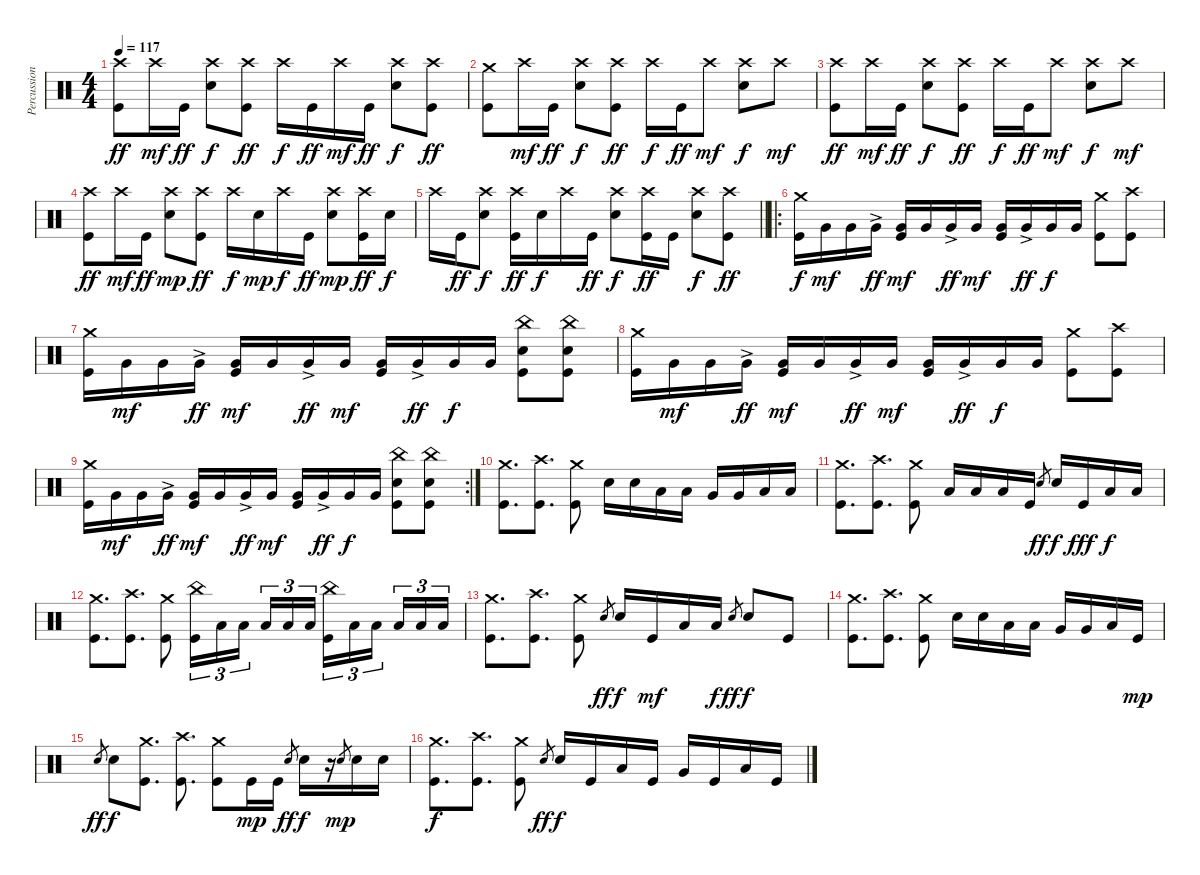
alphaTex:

\track ("Percussion" "Percussion") {instrument percussion}
\staff {score}
\articulation defaults
\ts (4 4)
\tempo 117
\clef neutral
\ks c
("Crash high (hit)" "Kick (hit)").8{dy ff} "Crash high (hit)".16{dy mf} "Kick (hit)".16{dy ff} ("Crash high (hit)" "Snare (hit) 2").8{dy f} ("Crash high (hit)" "Kick (hit)").8{dy ff} "Crash high (hit)".16{dy f} "Kick (hit)".16{dy ff} "Crash high (hit)".16{dy mf} "Kick (hit)".16{dy ff} ("Crash high (hit)" "Snare (hit) 2").8{dy f} ("Crash high (hit)" "Kick (hit)").8{dy ff} |
("Crash medium (hit)" "Kick (hit)").8 "Crash high (hit)".16{dy mf} "Kick (hit)".16{dy ff} ("Crash high (hit)" "Snare (hit) 2").8{dy f} ("Crash high (hit)" "Kick (hit)").8{dy ff} "Crash high (hit)".16{dy f} "Kick (hit)".16{dy ff} "Crash high (hit)".8{dy mf} ("Crash high (hit)" "Snare (hit) 2").8{dy f} "Crash high (hit)".8{dy mf} |
("Crash high (hit)" "Kick (hit)").8{dy ff} "Crash high (hit)".16{dy mf} "Kick (hit)".16{dy ff} ("Crash high (hit)" "Snare (hit) 2").8{dy f} ("Crash high (hit)" "Kick (hit)").8{dy ff} "Crash high (hit)".16{dy f} "Kick (hit)".16{dy ff} "Crash high (hit)".8{dy mf} ("Crash high (hit)" "Snare (hit) 2").8{dy f} "Crash high (hit)".8{dy mf} |
("Crash high (hit)" "Kick (hit)").8{dy ff} "Crash high (hit)".16{dy mf} "Kick (hit)".16{dy ff} ("Crash high (hit)" "Snare (hit) 2").8{dy mp} ("Crash high (hit)" "Kick (hit)").8{dy ff} "Crash high (hit)".16{dy f} "Snare (hit) 2".16{dy mp} "Crash high (hit)".16{dy f} "Kick (hit)".16{dy ff} ("Crash high (hit)" "Snare (hit) 2").8{dy mp} ("Crash high (hit)" "Kick (hit)").16{dy ff} "Snare (hit) 2".16{dy f} |
\barLineRight lightlight "Crash high (hit)".16 "Kick (hit)".16{dy ff}
("Crash high (hit)" "Snare (hit) 2").8{dy f} ("Crash high (hit)" "Kick (hit)").16{dy ff} "Snare (hit) 2".16{dy f} "Crash high (hit)".16 "Kick (hit)".16{dy ff} ("Crash high (hit)" "Snare (hit) 2").8{dy f} ("Crash high (hit)" "Kick (hit)").16{dy ff} "Kick (hit)".16 ("Crash high (hit)" "Snare (hit) 2").8{dy f} ("Crash high (hit)" "Kick (hit)").8{dy ff} |
\ro
("Crash medium (hit)" "Kick (hit)").16{dy f} "Very Low Tom (hit)".16{dy mf} "Very Low Tom (hit)".16 "Very Low Tom (hit)"{ac}.16{dy ff} ("Very Low Tom (hit)" "Kick (hit)").16{dy mf} "Very Low Tom (hit)".16 "Very Low Tom (hit)"{ac}.16{dy ff} "Very Low Tom (hit)".16{dy mf} ("Very Low Tom (hit)" "Kick (hit)").16 "Very Low Tom (hit)"{ac}.16{dy ff} "Very Low Tom (hit)".16{dy f} "Very Low Tom (hit)".16 ("Crash medium (hit)" "Kick (hit)").8 ("Crash high (hit)" "Kick (hit)").8 |
("Crash medium (hit)" "Kick (hit)").16 "Very Low Tom (hit)".16{dy mf} "Very Low Tom (hit)".16 "Very Low Tom (hit)"{ac}.16{dy ff} ("Very Low Tom (hit)" "Kick (hit)").16{dy mf} "Very Low Tom (hit)".16 "Very Low Tom (hit)"{ac}.16{dy ff} "Very Low Tom (hit)".16{dy mf} ("Very Low Tom (hit)" "Kick (hit)").16 "Very Low Tom (hit)"{ac}.16{dy ff} "Very Low Tom (hit)".16{dy f} "Very Low Tom (hit)".16 ("China (hit)" "Snare (hit) 2" "Kick (hit)").8 ("China (hit)" "Snare (hit) 2" "Kick (hit)").8 |
("Crash medium (hit)" "Kick (hit)").16 "Very Low Tom (hit)".16{dy mf} "Very Low Tom (hit)".16 "Very Low Tom (hit)"{ac}.16{dy ff} ("Very Low Tom (hit)" "Kick (hit)").16{dy mf} "Very Low Tom (hit)".16 "Very Low Tom (hit)"{ac}.16{dy ff} "Very Low Tom (hit)".16{dy mf} ("Very Low Tom (hit)" "Kick (hit)").16 "Very Low Tom (hit)"{ac}.16{dy ff} "Very Low Tom (hit)".16{dy f} "Very Low Tom (hit)".16 ("Crash medium (hit)" "Kick (hit)").8 ("Crash high (hit)" "Kick (hit)").8 |
\rc 2
("Crash medium (hit)" "Kick (hit)").16 "Very Low Tom (hit)".16{dy mf} "Very Low Tom (hit)".16 "Very Low Tom (hit)"{ac}.16{dy ff} ("Very Low Tom (hit)" "Kick (hit)").16{dy mf} "Very Low Tom (hit)".16 "Very Low Tom (hit)"{ac}.16{dy ff} "Very Low Tom (hit)".16{dy mf} ("Very Low Tom (hit)" "Kick (hit)").16 "Very Low Tom (hit)"{ac}.16{dy ff} "Very Low Tom (hit)".16{dy f} "Very Low Tom (hit)".16 ("China (hit)" "Snare (hit) 2" "Kick (hit)").8 ("China (hit)" "Snare (hit) 2" "Kick (hit)").8 |
("Crash medium (hit)" "Kick (hit)").8{d} ("Crash high (hit)" "Kick (hit)").8{d} ("Crash medium (hit)" "Kick (hit)").8 "Snare (hit) 2".16 "Snare (hit) 2".16 "Low Tom (hit)".16 "Low Tom (hit)".16 "Very Low Tom (hit)".16 "Very Low Tom (hit)".16 "Low Floor Tom (hit)".16 "Low Floor Tom (hit)".16 |
("Crash medium (hit)" "Kick (hit)").8{d} ("Crash high (hit)" "Kick (hit)").8{d} ("Crash medium (hit)" "Kick (hit)").8 "Low Tom (hit)".16 "Low Tom (hit)".16 "Low Tom (hit)".16 "Kick (hit)".16 "Snare (hit) 2".8{gr dy ff} "Snare (hit) 2".16{dy f} "Kick (hit)".16{dy fff} "Low Tom (hit)".16{dy f} "Low Tom (hit)".16 |
("Crash medium (hit)" "Kick (hit)").8{d} ("Crash high (hit)" "Kick (hit)").8{d} ("Crash medium (hit)" "Kick (hit)").8 ("China (hit)" "Kick (hit)").16{tu (3 2)} "Low Tom (hit)".16{tu (3 2)} "Low Tom (hit)".16{tu (3 2) beam splitsecondary} "Low Tom (hit)".16{tu (3 2)} "Low Tom (hit)".16{tu (3 2)} "Low Tom (hit)".16{tu (3 2)} ("China (hit)" "Kick (hit)").16{tu (3 2)} "Low Tom (hit)".16{tu (3 2)} "Low Tom (hit)".16{tu (3 2) beam splitsecondary} "Low Tom (hit)".16{tu (3 2)} "Low Tom (hit)".16{tu (3 2)} "Low Tom (hit)".16{tu (3 2)} |
("Crash medium (hit)" "Kick (hit)").8{d} ("Crash high (hit)" "Kick (hit)").8{d} ("Crash medium (hit)" "Kick (hit)").8 "Snare (hit) 2".8{gr dy ff} "Snare (hit) 2".16{dy f} "Kick (hit)".16{dy mf} "Low Tom (hit)".16 "Low Tom (hit)".16{dy f} "Snare (hit) 2".8{gr dy ff} "Snare (hit) 2".8{dy f} "Kick (hit)".8 |
("Crash medium (hit)" "Kick (hit)").8{d} ("Crash high (hit)" "Kick (hit)").8{d} ("Crash medium (hit)" "Kick (hit)").8 "Snare (hit) 2".16 "Snare (hit) 2".16 "Low Tom (hit)".16 "Low Tom (hit)".16 "Very Low Tom (hit)".16 "Very Low Tom (hit)".16 "Low Floor Tom (hit)".16 "Kick (hit)".16{dy mp} |
"Snare (hit) 2".8{gr dy ff} "Snare (hit) 2".8{dy f} ("Crash medium (hit)" "Kick (hit)").8{d} ("Crash high (hit)" "Kick (hit)").8{d} ("Crash medium (hit)" "Kick (hit)").8 "Kick (hit)".16{dy mp} "Kick (hit)".16 "Snare (hit) 2".8{gr dy ff} "Snare (hit) 2".16{dy f} r.16 "Snare (hit) 2".8{gr dy mp} "Snare (hit) 2".16 "Snare (hit) 2".16 |
("Crash medium (hit)" "Kick (hit)").8{d dy f} ("Crash high (hit)" "Kick (hit)").8{d} ("Crash medium (hit)" "Kick (hit)").8 "Snare (hit) 2".8{gr dy ff} "Snare (hit) 2".16{dy f} "Kick (hit)".16 "Low Tom (hit)".16 "Kick (hit)".16 "Very Low Tom (hit)".16 "Kick (hit)".16 "Low Floor Tom (hit)".16 "Kick (hit)".16
